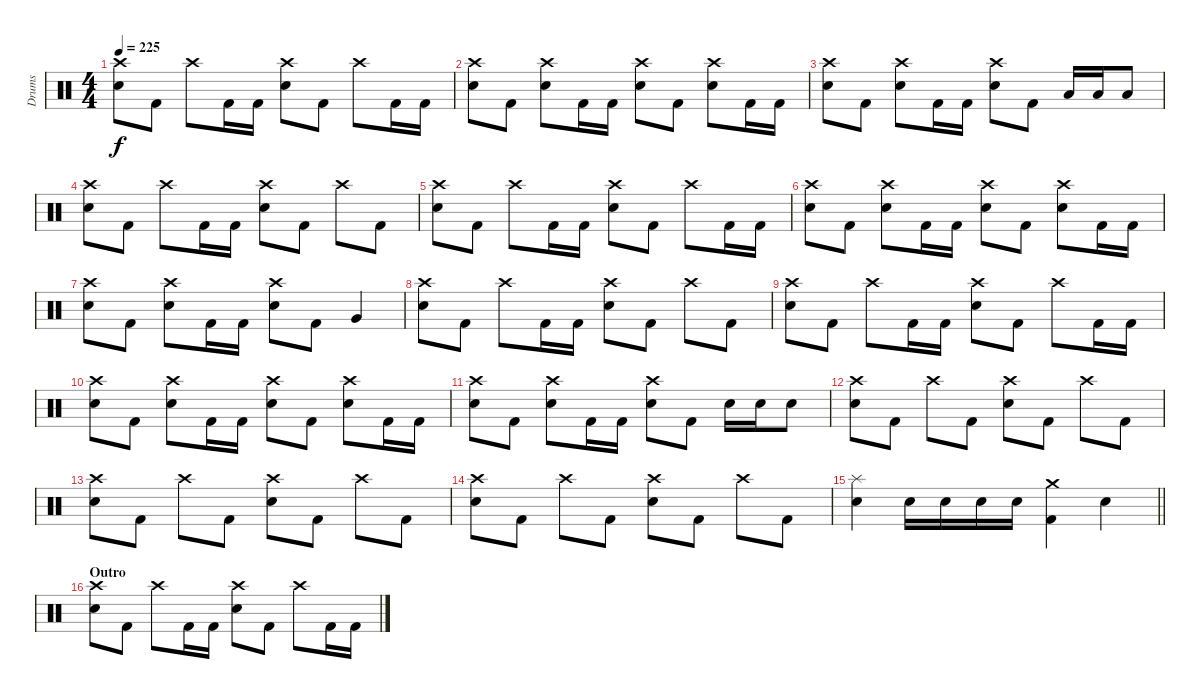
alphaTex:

\track ("Drums" "Drums") {instrument percussion}
\staff {score}
\articulation defaults
\ts (4 4)
\tempo 225
\clef neutral
\ks c
("Crash high (hit)" "Electric Snare (hit)").8{dy f} "Kick (hit) 2".8 "Crash high (hit)".8 "Kick (hit) 2".16 "Kick (hit) 2".16 ("Crash high (hit)" "Electric Snare (hit)").8 "Kick (hit) 2".8 "Crash high (hit)".8 "Kick (hit) 2".16 "Kick (hit) 2".16 |
("Crash high (hit)" "Electric Snare (hit)").8 "Kick (hit) 2".8 ("Crash high (hit)" "Electric Snare (hit)").8 "Kick (hit) 2".16 "Kick (hit) 2".16 ("Crash high (hit)" "Electric Snare (hit)").8 "Kick (hit) 2".8 ("Crash high (hit)" "Electric Snare (hit)").8 "Kick (hit) 2".16 "Kick (hit) 2".16 |
("Crash high (hit)" "Electric Snare (hit)").8 "Kick (hit) 2".8 ("Crash high (hit)" "Electric Snare (hit)").8 "Kick (hit) 2".16 "Kick (hit) 2".16 ("Crash high (hit)" "Electric Snare (hit)").8 "Kick (hit) 2".8 "Low Tom (hit)".16 "Low Tom (hit)".16 "Low Tom (hit)".8 |
("Crash high (hit)" "Electric Snare (hit)").8 "Kick (hit) 2".8 "Crash high (hit)".8 "Kick (hit) 2".16 "Kick (hit) 2".16 ("Crash high (hit)" "Electric Snare (hit)").8 "Kick (hit) 2".8 "Crash high (hit)".8 "Kick (hit) 2".8 |
("Crash high (hit)" "Electric Snare (hit)").8 "Kick (hit) 2".8 "Crash high (hit)".8 "Kick (hit) 2".16 "Kick (hit) 2".16 ("Crash high (hit)" "Electric Snare (hit)").8 "Kick (hit) 2".8 "Crash high (hit)".8 "Kick (hit) 2".16 "Kick (hit) 2".16 |
("Crash high (hit)" "Electric Snare (hit)").8 "Kick (hit) 2".8 ("Crash high (hit)" "Electric Snare (hit)").8 "Kick (hit) 2".16 "Kick (hit) 2".16 ("Crash high (hit)" "Electric Snare (hit)").8 "Kick (hit) 2".8 ("Crash high (hit)" "Electric Snare (hit)").8 "Kick (hit) 2".16 "Kick (hit) 2".16 |
("Crash high (hit)" "Electric Snare (hit)").8 "Kick (hit) 2".8 ("Crash high (hit)" "Electric Snare (hit)").8 "Kick (hit) 2".16 "Kick (hit) 2".16 ("Crash high (hit)" "Electric Snare (hit)").8 "Kick (hit) 2".8 "Very Low Tom (hit)".4 |
("Crash high (hit)" "Electric Snare (hit)").8 "Kick (hit) 2".8 "Crash high (hit)".8 "Kick (hit) 2".16 "Kick (hit) 2".16 ("Crash high (hit)" "Electric Snare (hit)").8 "Kick (hit) 2".8 "Crash high (hit)".8 "Kick (hit) 2".8 |
("Crash high (hit)" "Electric Snare (hit)").8 "Kick (hit) 2".8 "Crash high (hit)".8 "Kick (hit) 2".16 "Kick (hit) 2".16 ("Crash high (hit)" "Electric Snare (hit)").8 "Kick (hit) 2".8 "Crash high (hit)".8 "Kick (hit) 2".16 "Kick (hit) 2".16 |
("Crash high (hit)" "Electric Snare (hit)").8 "Kick (hit) 2".8 ("Crash high (hit)" "Electric Snare (hit)").8 "Kick (hit) 2".16 "Kick (hit) 2".16 ("Crash high (hit)" "Electric Snare (hit)").8 "Kick (hit) 2".8 ("Crash high (hit)" "Electric Snare (hit)").8 "Kick (hit) 2".16 "Kick (hit) 2".16 |
("Crash high (hit)" "Electric Snare (hit)").8 "Kick (hit) 2".8 ("Crash high (hit)" "Electric Snare (hit)").8 "Kick (hit) 2".16 "Kick (hit) 2".16 ("Crash high (hit)" "Electric Snare (hit)").8 "Kick (hit) 2".8 "Electric Snare (hit)".16 "Electric Snare (hit)".16 "Electric Snare (hit)".8 |
("Crash high (hit)" "Electric Snare (hit)").8 "Kick (hit) 2".8 "Crash high (hit)".8 "Kick (hit) 2".8 ("Crash high (hit)" "Electric Snare (hit)").8 "Kick (hit) 2".8 "Crash high (hit)".8 "Kick (hit) 2".8 |
("Crash high (hit)" "Electric Snare (hit)").8 "Kick (hit) 2".8 "Crash high (hit)".8 "Kick (hit) 2".8 ("Crash high (hit)" "Electric Snare (hit)").8 "Kick (hit) 2".8 "Crash high (hit)".8 "Kick (hit) 2".8 |
("Crash high (hit)" "Electric Snare (hit)").8 "Kick (hit) 2".8 "Crash high (hit)".8 "Kick (hit) 2".8 ("Crash high (hit)" "Electric Snare (hit)").8 "Kick (hit) 2".8 "Crash high (hit)".8 "Kick (hit) 2".8 |
\barLineRight lightlight
("Splash (hit)" "Electric Snare (hit)").4 "Electric Snare (hit)".16 "Electric Snare (hit)".16 "Electric Snare (hit)".16 "Electric Snare (hit)".16 ("Crash medium (hit)" "Kick (hit) 2").4 "Electric Snare (hit)".4 |
\section ("" "Outro")
("Crash high (hit)" "Electric Snare (hit)").8 "Kick (hit) 2".8 "Crash high (hit)".8 "Kick (hit) 2".16 "Kick (hit) 2".16 ("Crash high (hit)" "Electric Snare (hit)").8 "Kick (hit) 2".8 "Crash high (hit)".8 "Kick (hit) 2".16 "Kick (hit) 2".16
